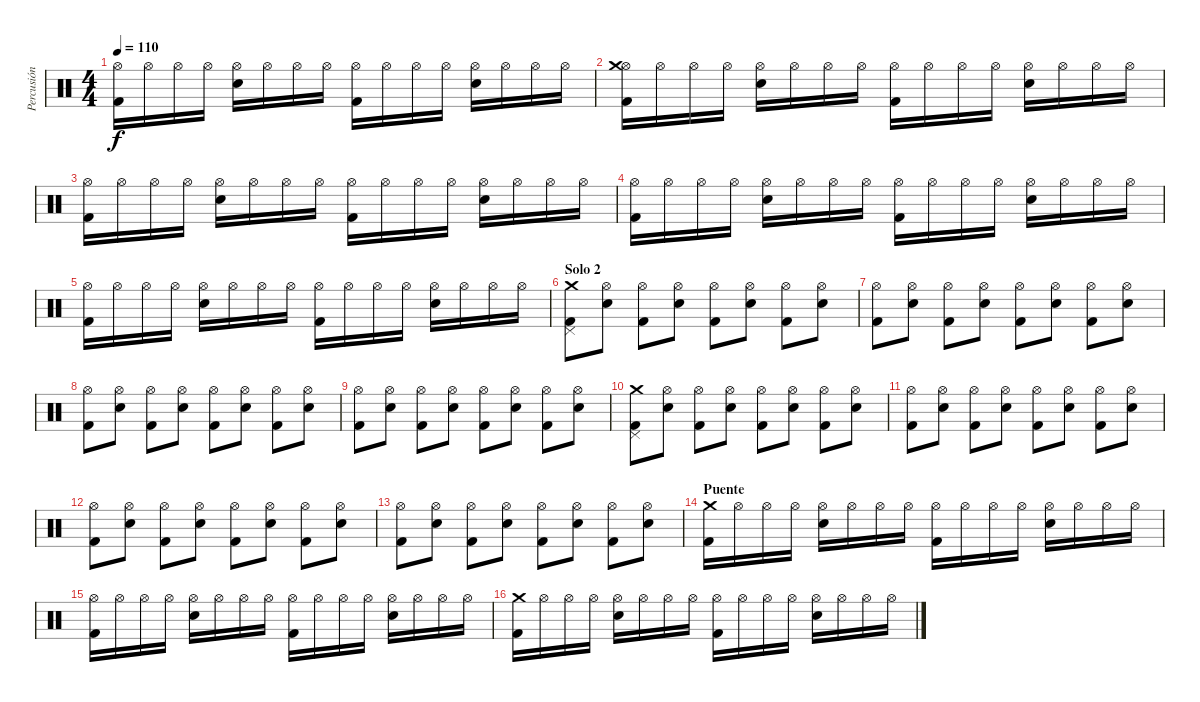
\track ("Percusión" "Percusión") {instrument percussion}
\staff {score}
\articulation defaults
\ts (4 4)
\tempo 110
\clef neutral
\ks c
("Hi-Hat (open)" "Kick (hit) 2").16{dy f} "Hi-Hat (open)".16 "Hi-Hat (open)".16 "Hi-Hat (open)".16 ("Hi-Hat (open)" "Snare (hit) 2").16 "Hi-Hat (open)".16 "Hi-Hat (open)".16 "Hi-Hat (open)".16 ("Hi-Hat (open)" "Kick (hit) 2").16 "Hi-Hat (open)".16 "Hi-Hat (open)".16 "Hi-Hat (open)".16 ("Hi-Hat (open)" "Snare (hit) 2").16 "Hi-Hat (open)".16 "Hi-Hat (open)".16 "Hi-Hat (open)".16 |
("Hi-Hat (open)" "Kick (hit) 2" "Crash medium (hit)").16 "Hi-Hat (open)".16 "Hi-Hat (open)".16 "Hi-Hat (open)".16 ("Hi-Hat (open)" "Snare (hit) 2").16 "Hi-Hat (open)".16 "Hi-Hat (open)".16 "Hi-Hat (open)".16 ("Hi-Hat (open)" "Kick (hit) 2").16 "Hi-Hat (open)".16 "Hi-Hat (open)".16 "Hi-Hat (open)".16 ("Hi-Hat (open)" "Snare (hit) 2").16 "Hi-Hat (open)".16 "Hi-Hat (open)".16 "Hi-Hat (open)".16 |
("Hi-Hat (open)" "Kick (hit) 2").16 "Hi-Hat (open)".16 "Hi-Hat (open)".16 "Hi-Hat (open)".16 ("Hi-Hat (open)" "Snare (hit) 2").16 "Hi-Hat (open)".16 "Hi-Hat (open)".16 "Hi-Hat (open)".16 ("Hi-Hat (open)" "Kick (hit) 2").16 "Hi-Hat (open)".16 "Hi-Hat (open)".16 "Hi-Hat (open)".16 ("Hi-Hat (open)" "Snare (hit) 2").16 "Hi-Hat (open)".16 "Hi-Hat (open)".16 "Hi-Hat (open)".16 |
("Hi-Hat (open)" "Kick (hit) 2").16 "Hi-Hat (open)".16 "Hi-Hat (open)".16 "Hi-Hat (open)".16 ("Hi-Hat (open)" "Snare (hit) 2").16 "Hi-Hat (open)".16 "Hi-Hat (open)".16 "Hi-Hat (open)".16 ("Hi-Hat (open)" "Kick (hit) 2").16 "Hi-Hat (open)".16 "Hi-Hat (open)".16 "Hi-Hat (open)".16 ("Hi-Hat (open)" "Snare (hit) 2").16 "Hi-Hat (open)".16 "Hi-Hat (open)".16 "Hi-Hat (open)".16 |
("Hi-Hat (open)" "Kick (hit) 2").16 "Hi-Hat (open)".16 "Hi-Hat (open)".16 "Hi-Hat (open)".16 ("Hi-Hat (open)" "Snare (hit) 2").16 "Hi-Hat (open)".16 "Hi-Hat (open)".16 "Hi-Hat (open)".16 ("Hi-Hat (open)" "Kick (hit) 2").16 "Hi-Hat (open)".16 "Hi-Hat (open)".16 "Hi-Hat (open)".16 ("Hi-Hat (open)" "Snare (hit) 2").16 "Hi-Hat (open)".16 "Hi-Hat (open)".16 "Hi-Hat (open)".16 |
\section ("" "Solo 2")
("Crash medium (hit)" "Kick (hit) 2" "Pedal Hi-Hat (hit)").8 ("Hi-Hat (open)" "Snare (hit) 2").8 ("Kick (hit) 2" "Hi-Hat (open)").8 ("Hi-Hat (open)" "Snare (hit) 2").8 ("Kick (hit) 2" "Hi-Hat (open)").8 ("Hi-Hat (open)" "Snare (hit) 2").8 ("Kick (hit) 2" "Hi-Hat (open)").8 ("Hi-Hat (open)" "Snare (hit) 2").8 |
("Kick (hit) 2" "Hi-Hat (open)").8 ("Hi-Hat (open)" "Snare (hit) 2").8 ("Kick (hit) 2" "Hi-Hat (open)").8 ("Hi-Hat (open)" "Snare (hit) 2").8 ("Kick (hit) 2" "Hi-Hat (open)").8 ("Hi-Hat (open)" "Snare (hit) 2").8 ("Kick (hit) 2" "Hi-Hat (open)").8 ("Hi-Hat (open)" "Snare (hit) 2").8 |
("Kick (hit) 2" "Hi-Hat (open)").8 ("Hi-Hat (open)" "Snare (hit) 2").8 ("Kick (hit) 2" "Hi-Hat (open)").8 ("Hi-Hat (open)" "Snare (hit) 2").8 ("Kick (hit) 2" "Hi-Hat (open)").8 ("Hi-Hat (open)" "Snare (hit) 2").8 ("Kick (hit) 2" "Hi-Hat (open)").8 ("Hi-Hat (open)" "Snare (hit) 2").8 |
("Kick (hit) 2" "Hi-Hat (open)").8 ("Hi-Hat (open)" "Snare (hit) 2").8 ("Kick (hit) 2" "Hi-Hat (open)").8 ("Hi-Hat (open)" "Snare (hit) 2").8 ("Kick (hit) 2" "Hi-Hat (open)").8 ("Hi-Hat (open)" "Snare (hit) 2").8 ("Kick (hit) 2" "Hi-Hat (open)").8 ("Hi-Hat (open)" "Snare (hit) 2").8 |
("Crash medium (hit)" "Kick (hit) 2" "Pedal Hi-Hat (hit)").8 ("Hi-Hat (open)" "Snare (hit) 2").8 ("Kick (hit) 2" "Hi-Hat (open)").8 ("Hi-Hat (open)" "Snare (hit) 2").8 ("Kick (hit) 2" "Hi-Hat (open)").8 ("Hi-Hat (open)" "Snare (hit) 2").8 ("Kick (hit) 2" "Hi-Hat (open)").8 ("Hi-Hat (open)" "Snare (hit) 2").8 |
("Kick (hit) 2" "Hi-Hat (open)").8 ("Hi-Hat (open)" "Snare (hit) 2").8 ("Kick (hit) 2" "Hi-Hat (open)").8 ("Hi-Hat (open)" "Snare (hit) 2").8 ("Kick (hit) 2" "Hi-Hat (open)").8 ("Hi-Hat (open)" "Snare (hit) 2").8 ("Kick (hit) 2" "Hi-Hat (open)").8 ("Hi-Hat (open)" "Snare (hit) 2").8 |
("Kick (hit) 2" "Hi-Hat (open)").8 ("Hi-Hat (open)" "Snare (hit) 2").8 ("Kick (hit) 2" "Hi-Hat (open)").8 ("Hi-Hat (open)" "Snare (hit) 2").8 ("Kick (hit) 2" "Hi-Hat (open)").8 ("Hi-Hat (open)" "Snare (hit) 2").8 ("Kick (hit) 2" "Hi-Hat (open)").8 ("Hi-Hat (open)" "Snare (hit) 2").8 |
("Kick (hit) 2" "Hi-Hat (open)").8 ("Hi-Hat (open)" "Snare (hit) 2").8 ("Kick (hit) 2" "Hi-Hat (open)").8 ("Hi-Hat (open)" "Snare (hit) 2").8 ("Kick (hit) 2" "Hi-Hat (open)").8 ("Hi-Hat (open)" "Snare (hit) 2").8 ("Kick (hit) 2" "Hi-Hat (open)").8 ("Hi-Hat (open)" "Snare (hit) 2").8 |
\section ("" "Puente")
("Crash medium (hit)" "Kick (hit) 2").16 "Hi-Hat (open)".16 "Hi-Hat (open)".16 "Hi-Hat (open)".16 ("Hi-Hat (open)" "Snare (hit) 2").16 "Hi-Hat (open)".16 "Hi-Hat (open)".16 "Hi-Hat (open)".16 ("Hi-Hat (open)" "Kick (hit) 2").16 "Hi-Hat (open)".16 "Hi-Hat (open)".16 "Hi-Hat (open)".16 ("Hi-Hat (open)" "Snare (hit) 2").16 "Hi-Hat (open)".16 "Hi-Hat (open)".16 "Hi-Hat (open)".16 |
("Hi-Hat (open)" "Kick (hit) 2").16 "Hi-Hat (open)".16 "Hi-Hat (open)".16 "Hi-Hat (open)".16 ("Hi-Hat (open)" "Snare (hit) 2").16 "Hi-Hat (open)".16 "Hi-Hat (open)".16 "Hi-Hat (open)".16 ("Hi-Hat (open)" "Kick (hit) 2").16 "Hi-Hat (open)".16 "Hi-Hat (open)".16 "Hi-Hat (open)".16 ("Hi-Hat (open)" "Snare (hit) 2").16 "Hi-Hat (open)".16 "Hi-Hat (open)".16 "Hi-Hat (open)".16 |
("Crash medium (hit)" "Kick (hit) 2").16 "Hi-Hat (open)".16 "Hi-Hat (open)".16 "Hi-Hat (open)".16 ("Hi-Hat (open)" "Snare (hit) 2").16 "Hi-Hat (open)".16 "Hi-Hat (open)".16 "Hi-Hat (open)".16 ("Hi-Hat (open)" "Kick (hit) 2").16 "Hi-Hat (open)".16 "Hi-Hat (open)".16 "Hi-Hat (open)".16 ("Hi-Hat (open)" "Snare (hit) 2").16 "Hi-Hat (open)".16 "Hi-Hat (open)".16 "Hi-Hat (open)".16
